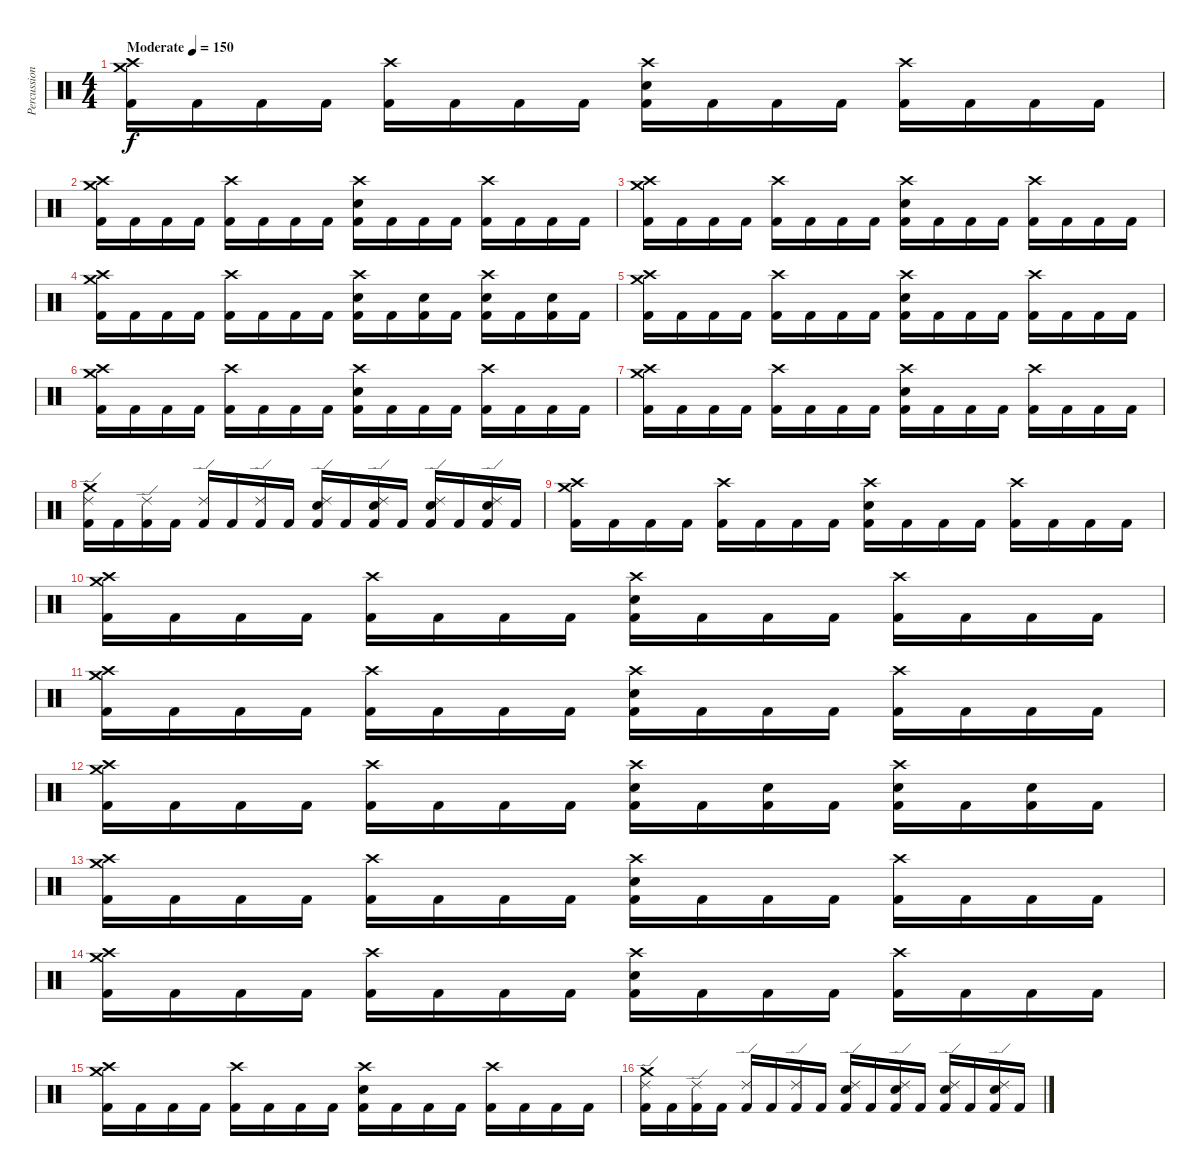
\track ("Percussion" "Percussion") {instrument percussion}
\staff {score}
\articulation defaults
\ts (4 4)
\tempo (150 "Moderate")
\clef neutral
\ks c
("Crash high (hit)" "Crash medium (hit)" "Kick (hit) 2").16{dy f} "Kick (hit) 2".16 "Kick (hit) 2".16 "Kick (hit) 2".16 ("Crash high (hit)" "Kick (hit) 2").16 "Kick (hit) 2".16 "Kick (hit) 2".16 "Kick (hit) 2".16 ("Crash high (hit)" "Electric Snare (hit)" "Kick (hit) 2").16 "Kick (hit) 2".16 "Kick (hit) 2".16 "Kick (hit) 2".16 ("Crash high (hit)" "Kick (hit) 2").16 "Kick (hit) 2".16 "Kick (hit) 2".16 "Kick (hit) 2".16 |
("Crash high (hit)" "Crash medium (hit)" "Kick (hit) 2").16 "Kick (hit) 2".16 "Kick (hit) 2".16 "Kick (hit) 2".16 ("Crash high (hit)" "Kick (hit) 2").16 "Kick (hit) 2".16 "Kick (hit) 2".16 "Kick (hit) 2".16 ("Crash high (hit)" "Electric Snare (hit)" "Kick (hit) 2").16 "Kick (hit) 2".16 "Kick (hit) 2".16 "Kick (hit) 2".16 ("Crash high (hit)" "Kick (hit) 2").16 "Kick (hit) 2".16 "Kick (hit) 2".16 "Kick (hit) 2".16 |
("Crash high (hit)" "Crash medium (hit)" "Kick (hit) 2").16 "Kick (hit) 2".16 "Kick (hit) 2".16 "Kick (hit) 2".16 ("Crash high (hit)" "Kick (hit) 2").16 "Kick (hit) 2".16 "Kick (hit) 2".16 "Kick (hit) 2".16 ("Crash high (hit)" "Electric Snare (hit)" "Kick (hit) 2").16 "Kick (hit) 2".16 "Kick (hit) 2".16 "Kick (hit) 2".16 ("Crash high (hit)" "Kick (hit) 2").16 "Kick (hit) 2".16 "Kick (hit) 2".16 "Kick (hit) 2".16 |
("Crash high (hit)" "Crash medium (hit)" "Kick (hit) 2").16 "Kick (hit) 2".16 "Kick (hit) 2".16 "Kick (hit) 2".16 ("Crash high (hit)" "Kick (hit) 2").16 "Kick (hit) 2".16 "Kick (hit) 2".16 "Kick (hit) 2".16 ("Crash high (hit)" "Electric Snare (hit)" "Kick (hit) 2").16 "Kick (hit) 2".16 ("Electric Snare (hit)" "Kick (hit) 2").16 "Kick (hit) 2".16 ("Crash high (hit)" "Electric Snare (hit)" "Kick (hit) 2").16 "Kick (hit) 2".16 ("Electric Snare (hit)" "Kick (hit) 2").16 "Kick (hit) 2".16 |
("Crash high (hit)" "Crash medium (hit)" "Kick (hit) 2").16 "Kick (hit) 2".16 "Kick (hit) 2".16 "Kick (hit) 2".16 ("Crash high (hit)" "Kick (hit) 2").16 "Kick (hit) 2".16 "Kick (hit) 2".16 "Kick (hit) 2".16 ("Crash high (hit)" "Electric Snare (hit)" "Kick (hit) 2").16 "Kick (hit) 2".16 "Kick (hit) 2".16 "Kick (hit) 2".16 ("Crash high (hit)" "Kick (hit) 2").16 "Kick (hit) 2".16 "Kick (hit) 2".16 "Kick (hit) 2".16 |
("Crash high (hit)" "Crash medium (hit)" "Kick (hit) 2").16 "Kick (hit) 2".16 "Kick (hit) 2".16 "Kick (hit) 2".16 ("Crash high (hit)" "Kick (hit) 2").16 "Kick (hit) 2".16 "Kick (hit) 2".16 "Kick (hit) 2".16 ("Crash high (hit)" "Electric Snare (hit)" "Kick (hit) 2").16 "Kick (hit) 2".16 "Kick (hit) 2".16 "Kick (hit) 2".16 ("Crash high (hit)" "Kick (hit) 2").16 "Kick (hit) 2".16 "Kick (hit) 2".16 "Kick (hit) 2".16 |
("Crash high (hit)" "Crash medium (hit)" "Kick (hit) 2").16 "Kick (hit) 2".16 "Kick (hit) 2".16 "Kick (hit) 2".16 ("Crash high (hit)" "Kick (hit) 2").16 "Kick (hit) 2".16 "Kick (hit) 2".16 "Kick (hit) 2".16 ("Crash high (hit)" "Electric Snare (hit)" "Kick (hit) 2").16 "Kick (hit) 2".16 "Kick (hit) 2".16 "Kick (hit) 2".16 ("Crash high (hit)" "Kick (hit) 2").16 "Kick (hit) 2".16 "Kick (hit) 2".16 "Kick (hit) 2".16 |
("Ride (edge) 2" "Crash medium (hit)" "Kick (hit) 2").16 "Kick (hit) 2".16 ("Ride (edge) 2" "Kick (hit) 2").16 "Kick (hit) 2".16 ("Ride (edge) 2" "Kick (hit) 2").16 "Kick (hit) 2".16 ("Ride (edge) 2" "Kick (hit) 2").16 "Kick (hit) 2".16 ("Ride (edge) 2" "Electric Snare (hit)" "Kick (hit) 2").16 "Kick (hit) 2".16 ("Ride (edge) 2" "Electric Snare (hit)" "Kick (hit) 2").16 "Kick (hit) 2".16 ("Ride (edge) 2" "Electric Snare (hit)" "Kick (hit) 2").16 "Kick (hit) 2".16 ("Ride (edge) 2" "Electric Snare (hit)" "Kick (hit) 2").16 "Kick (hit) 2".16 |
("Crash high (hit)" "Crash medium (hit)" "Kick (hit) 2").16 "Kick (hit) 2".16 "Kick (hit) 2".16 "Kick (hit) 2".16 ("Crash high (hit)" "Kick (hit) 2").16 "Kick (hit) 2".16 "Kick (hit) 2".16 "Kick (hit) 2".16 ("Crash high (hit)" "Electric Snare (hit)" "Kick (hit) 2").16 "Kick (hit) 2".16 "Kick (hit) 2".16 "Kick (hit) 2".16 ("Crash high (hit)" "Kick (hit) 2").16 "Kick (hit) 2".16 "Kick (hit) 2".16 "Kick (hit) 2".16 |
("Crash high (hit)" "Crash medium (hit)" "Kick (hit) 2").16 "Kick (hit) 2".16 "Kick (hit) 2".16 "Kick (hit) 2".16 ("Crash high (hit)" "Kick (hit) 2").16 "Kick (hit) 2".16 "Kick (hit) 2".16 "Kick (hit) 2".16 ("Crash high (hit)" "Electric Snare (hit)" "Kick (hit) 2").16 "Kick (hit) 2".16 "Kick (hit) 2".16 "Kick (hit) 2".16 ("Crash high (hit)" "Kick (hit) 2").16 "Kick (hit) 2".16 "Kick (hit) 2".16 "Kick (hit) 2".16 |
("Crash high (hit)" "Crash medium (hit)" "Kick (hit) 2").16 "Kick (hit) 2".16 "Kick (hit) 2".16 "Kick (hit) 2".16 ("Crash high (hit)" "Kick (hit) 2").16 "Kick (hit) 2".16 "Kick (hit) 2".16 "Kick (hit) 2".16 ("Crash high (hit)" "Electric Snare (hit)" "Kick (hit) 2").16 "Kick (hit) 2".16 "Kick (hit) 2".16 "Kick (hit) 2".16 ("Crash high (hit)" "Kick (hit) 2").16 "Kick (hit) 2".16 "Kick (hit) 2".16 "Kick (hit) 2".16 |
("Crash high (hit)" "Crash medium (hit)" "Kick (hit) 2").16 "Kick (hit) 2".16 "Kick (hit) 2".16 "Kick (hit) 2".16 ("Crash high (hit)" "Kick (hit) 2").16 "Kick (hit) 2".16 "Kick (hit) 2".16 "Kick (hit) 2".16 ("Crash high (hit)" "Electric Snare (hit)" "Kick (hit) 2").16 "Kick (hit) 2".16 ("Electric Snare (hit)" "Kick (hit) 2").16 "Kick (hit) 2".16 ("Crash high (hit)" "Electric Snare (hit)" "Kick (hit) 2").16 "Kick (hit) 2".16 ("Electric Snare (hit)" "Kick (hit) 2").16 "Kick (hit) 2".16 |
("Crash high (hit)" "Crash medium (hit)" "Kick (hit) 2").16 "Kick (hit) 2".16 "Kick (hit) 2".16 "Kick (hit) 2".16 ("Crash high (hit)" "Kick (hit) 2").16 "Kick (hit) 2".16 "Kick (hit) 2".16 "Kick (hit) 2".16 ("Crash high (hit)" "Electric Snare (hit)" "Kick (hit) 2").16 "Kick (hit) 2".16 "Kick (hit) 2".16 "Kick (hit) 2".16 ("Crash high (hit)" "Kick (hit) 2").16 "Kick (hit) 2".16 "Kick (hit) 2".16 "Kick (hit) 2".16 |
("Crash high (hit)" "Crash medium (hit)" "Kick (hit) 2").16 "Kick (hit) 2".16 "Kick (hit) 2".16 "Kick (hit) 2".16 ("Crash high (hit)" "Kick (hit) 2").16 "Kick (hit) 2".16 "Kick (hit) 2".16 "Kick (hit) 2".16 ("Crash high (hit)" "Electric Snare (hit)" "Kick (hit) 2").16 "Kick (hit) 2".16 "Kick (hit) 2".16 "Kick (hit) 2".16 ("Crash high (hit)" "Kick (hit) 2").16 "Kick (hit) 2".16 "Kick (hit) 2".16 "Kick (hit) 2".16 |
("Crash high (hit)" "Crash medium (hit)" "Kick (hit) 2").16 "Kick (hit) 2".16 "Kick (hit) 2".16 "Kick (hit) 2".16 ("Crash high (hit)" "Kick (hit) 2").16 "Kick (hit) 2".16 "Kick (hit) 2".16 "Kick (hit) 2".16 ("Crash high (hit)" "Electric Snare (hit)" "Kick (hit) 2").16 "Kick (hit) 2".16 "Kick (hit) 2".16 "Kick (hit) 2".16 ("Crash high (hit)" "Kick (hit) 2").16 "Kick (hit) 2".16 "Kick (hit) 2".16 "Kick (hit) 2".16 |
("Ride (edge) 2" "Crash medium (hit)" "Kick (hit) 2").16 "Kick (hit) 2".16 ("Ride (edge) 2" "Kick (hit) 2").16 "Kick (hit) 2".16 ("Ride (edge) 2" "Kick (hit) 2").16 "Kick (hit) 2".16 ("Ride (edge) 2" "Kick (hit) 2").16 "Kick (hit) 2".16 ("Ride (edge) 2" "Electric Snare (hit)" "Kick (hit) 2").16 "Kick (hit) 2".16 ("Ride (edge) 2" "Electric Snare (hit)" "Kick (hit) 2").16 "Kick (hit) 2".16 ("Ride (edge) 2" "Electric Snare (hit)" "Kick (hit) 2").16 "Kick (hit) 2".16 ("Ride (edge) 2" "Electric Snare (hit)" "Kick (hit) 2").16 "Kick (hit) 2".16
